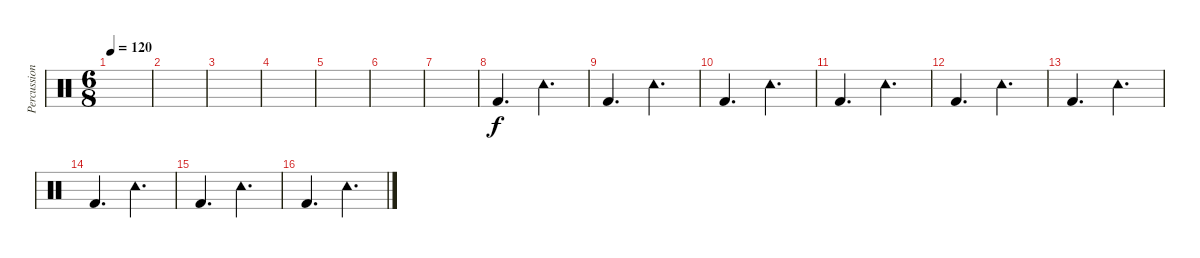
\track ("Percussion" "Percussion") {instrument percussion}
\staff {score}
\articulation defaults
\ts (6 8)
\tempo 120
\clef neutral
\ks c
|
|
|
|
|
|
|
"Kick (hit) 2".4{d} "Tambourine (hit)".4{d} |
"Kick (hit) 2".4{d} "Tambourine (hit)".4{d} |
"Kick (hit) 2".4{d} "Tambourine (hit)".4{d} |
"Kick (hit) 2".4{d} "Tambourine (hit)".4{d} |
"Kick (hit) 2".4{d} "Tambourine (hit)".4{d} |
"Kick (hit) 2".4{d} "Tambourine (hit)".4{d} |
"Kick (hit) 2".4{d} "Tambourine (hit)".4{d} |
"Kick (hit) 2".4{d} "Tambourine (hit)".4{d} |
"Kick (hit) 2".4{d} "Tambourine (hit)".4{d}
